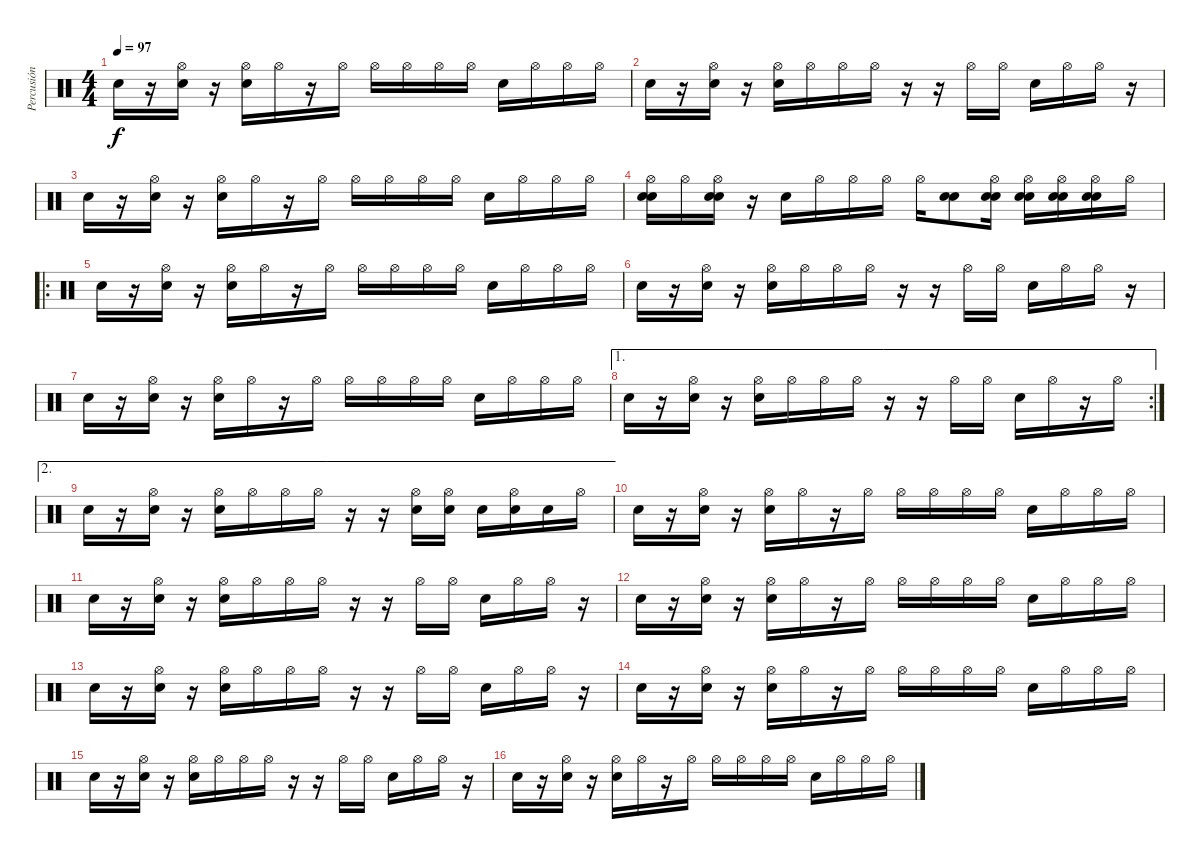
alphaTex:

\track ("Percusión" "Percusión") {instrument percussion}
\staff {score}
\articulation defaults
\ts (4 4)
\tempo 97
\clef neutral
\ks c "Snare (hit) 2".16{dy f}
r.16 ("Hi-Hat (open)" "Snare (hit) 2").16 r.16 ("Hi-Hat (open)" "Electric Snare (hit)").16 "Hi-Hat (open)".16 r.16 "Hi-Hat (open)".16 "Hi-Hat (open)".16 "Hi-Hat (open)".16 "Hi-Hat (open)".16 "Hi-Hat (open)".16 "Electric Snare (hit)".16 "Hi-Hat (open)".16 "Hi-Hat (open)".16 "Hi-Hat (open)".16 |
"Snare (hit) 2".16 r.16 ("Hi-Hat (open)" "Snare (hit) 2").16 r.16 ("Hi-Hat (open)" "Electric Snare (hit)").16 "Hi-Hat (open)".16 "Hi-Hat (open)".16 "Hi-Hat (open)".16 r.16 r.16 "Hi-Hat (open)".16 "Hi-Hat (open)".16 "Electric Snare (hit)".16 "Hi-Hat (open)".16 "Hi-Hat (open)".16 r.16 |
"Snare (hit) 2".16 r.16 ("Hi-Hat (open)" "Snare (hit) 2").16 r.16 ("Hi-Hat (open)" "Electric Snare (hit)").16 "Hi-Hat (open)".16 r.16 "Hi-Hat (open)".16 "Hi-Hat (open)".16 "Hi-Hat (open)".16 "Hi-Hat (open)".16 "Hi-Hat (open)".16 "Electric Snare (hit)".16 "Hi-Hat (open)".16 "Hi-Hat (open)".16 "Hi-Hat (open)".16 |
("Hi-Hat (open)" "Snare (hit) 2" "Snare (hit) 2").16 "Hi-Hat (open)".16 ("Hi-Hat (open)" "Snare (hit) 2" "Snare (hit) 2").16 r.16 "Electric Snare (hit)".16 "Hi-Hat (open)".16 "Hi-Hat (open)".16 "Hi-Hat (open)".16 "Hi-Hat (open)".16 ("Snare (hit) 2" "Snare (hit) 2").8 ("Hi-Hat (open)" "Snare (hit) 2" "Snare (hit) 2").16 ("Hi-Hat (open)" "Electric Snare (hit)" "Electric Snare (hit)").16 ("Hi-Hat (open)" "Electric Snare (hit)" "Electric Snare (hit)").16 ("Hi-Hat (open)" "Snare (hit) 2" "Snare (hit) 2").16 "Hi-Hat (open)".16 |
\ro "Snare (hit) 2".16
r.16 ("Hi-Hat (open)" "Snare (hit) 2").16 r.16 ("Hi-Hat (open)" "Electric Snare (hit)").16 "Hi-Hat (open)".16 r.16 "Hi-Hat (open)".16 "Hi-Hat (open)".16 "Hi-Hat (open)".16 "Hi-Hat (open)".16 "Hi-Hat (open)".16 "Electric Snare (hit)".16 "Hi-Hat (open)".16 "Hi-Hat (open)".16 "Hi-Hat (open)".16 |
"Snare (hit) 2".16 r.16 ("Hi-Hat (open)" "Snare (hit) 2").16 r.16 ("Hi-Hat (open)" "Electric Snare (hit)").16 "Hi-Hat (open)".16 "Hi-Hat (open)".16 "Hi-Hat (open)".16 r.16 r.16 "Hi-Hat (open)".16 "Hi-Hat (open)".16 "Electric Snare (hit)".16 "Hi-Hat (open)".16 "Hi-Hat (open)".16 r.16 |
"Snare (hit) 2".16 r.16 ("Hi-Hat (open)" "Snare (hit) 2").16 r.16 ("Hi-Hat (open)" "Electric Snare (hit)").16 "Hi-Hat (open)".16 r.16 "Hi-Hat (open)".16 "Hi-Hat (open)".16 "Hi-Hat (open)".16 "Hi-Hat (open)".16 "Hi-Hat (open)".16 "Electric Snare (hit)".16 "Hi-Hat (open)".16 "Hi-Hat (open)".16 "Hi-Hat (open)".16 |
\ae 1
\rc 2 "Snare (hit) 2".16
r.16 ("Hi-Hat (open)" "Snare (hit) 2").16 r.16 ("Hi-Hat (open)" "Electric Snare (hit)").16 "Hi-Hat (open)".16 "Hi-Hat (open)".16 "Hi-Hat (open)".16 r.16 r.16 "Hi-Hat (open)".16 "Hi-Hat (open)".16 "Electric Snare (hit)".16 "Hi-Hat (open)".16 r.16 "Hi-Hat (open)".16 |
\ae 2 "Snare (hit) 2".16
r.16 ("Hi-Hat (open)" "Snare (hit) 2").16 r.16 ("Hi-Hat (open)" "Electric Snare (hit)").16 "Hi-Hat (open)".16 "Hi-Hat (open)".16 "Hi-Hat (open)".16 r.16 r.16 ("Hi-Hat (open)" "Snare (hit) 2").16 ("Hi-Hat (open)" "Electric Snare (hit)").16 "Snare (hit) 2".16 ("Hi-Hat (open)" "Electric Snare (hit)").16 "Electric Snare (hit)".16 "Hi-Hat (open)".16 |
"Snare (hit) 2".16 r.16 ("Hi-Hat (open)" "Snare (hit) 2").16 r.16 ("Hi-Hat (open)" "Electric Snare (hit)").16 "Hi-Hat (open)".16 r.16 "Hi-Hat (open)".16 "Hi-Hat (open)".16 "Hi-Hat (open)".16 "Hi-Hat (open)".16 "Hi-Hat (open)".16 "Electric Snare (hit)".16 "Hi-Hat (open)".16 "Hi-Hat (open)".16 "Hi-Hat (open)".16 |
"Snare (hit) 2".16 r.16 ("Hi-Hat (open)" "Snare (hit) 2").16 r.16 ("Hi-Hat (open)" "Electric Snare (hit)").16 "Hi-Hat (open)".16 "Hi-Hat (open)".16 "Hi-Hat (open)".16 r.16 r.16 "Hi-Hat (open)".16 "Hi-Hat (open)".16 "Electric Snare (hit)".16 "Hi-Hat (open)".16 "Hi-Hat (open)".16 r.16 |
"Snare (hit) 2".16 r.16 ("Hi-Hat (open)" "Snare (hit) 2").16 r.16 ("Hi-Hat (open)" "Electric Snare (hit)").16 "Hi-Hat (open)".16 r.16 "Hi-Hat (open)".16 "Hi-Hat (open)".16 "Hi-Hat (open)".16 "Hi-Hat (open)".16 "Hi-Hat (open)".16 "Electric Snare (hit)".16 "Hi-Hat (open)".16 "Hi-Hat (open)".16 "Hi-Hat (open)".16 |
"Snare (hit) 2".16 r.16 ("Hi-Hat (open)" "Snare (hit) 2").16 r.16 ("Hi-Hat (open)" "Electric Snare (hit)").16 "Hi-Hat (open)".16 "Hi-Hat (open)".16 "Hi-Hat (open)".16 r.16 r.16 "Hi-Hat (open)".16 "Hi-Hat (open)".16 "Electric Snare (hit)".16 "Hi-Hat (open)".16 "Hi-Hat (open)".16 r.16 |
"Snare (hit) 2".16 r.16 ("Hi-Hat (open)" "Snare (hit) 2").16 r.16 ("Hi-Hat (open)" "Electric Snare (hit)").16 "Hi-Hat (open)".16 r.16 "Hi-Hat (open)".16 "Hi-Hat (open)".16 "Hi-Hat (open)".16 "Hi-Hat (open)".16 "Hi-Hat (open)".16 "Electric Snare (hit)".16 "Hi-Hat (open)".16 "Hi-Hat (open)".16 "Hi-Hat (open)".16 |
"Snare (hit) 2".16 r.16 ("Hi-Hat (open)" "Snare (hit) 2").16 r.16 ("Hi-Hat (open)" "Electric Snare (hit)").16 "Hi-Hat (open)".16 "Hi-Hat (open)".16 "Hi-Hat (open)".16 r.16 r.16 "Hi-Hat (open)".16 "Hi-Hat (open)".16 "Electric Snare (hit)".16 "Hi-Hat (open)".16 "Hi-Hat (open)".16 r.16 |
"Snare (hit) 2".16 r.16 ("Hi-Hat (open)" "Snare (hit) 2").16 r.16 ("Hi-Hat (open)" "Electric Snare (hit)").16 "Hi-Hat (open)".16 r.16 "Hi-Hat (open)".16 "Hi-Hat (open)".16 "Hi-Hat (open)".16 "Hi-Hat (open)".16 "Hi-Hat (open)".16 "Electric Snare (hit)".16 "Hi-Hat (open)".16 "Hi-Hat (open)".16 "Hi-Hat (open)".16
